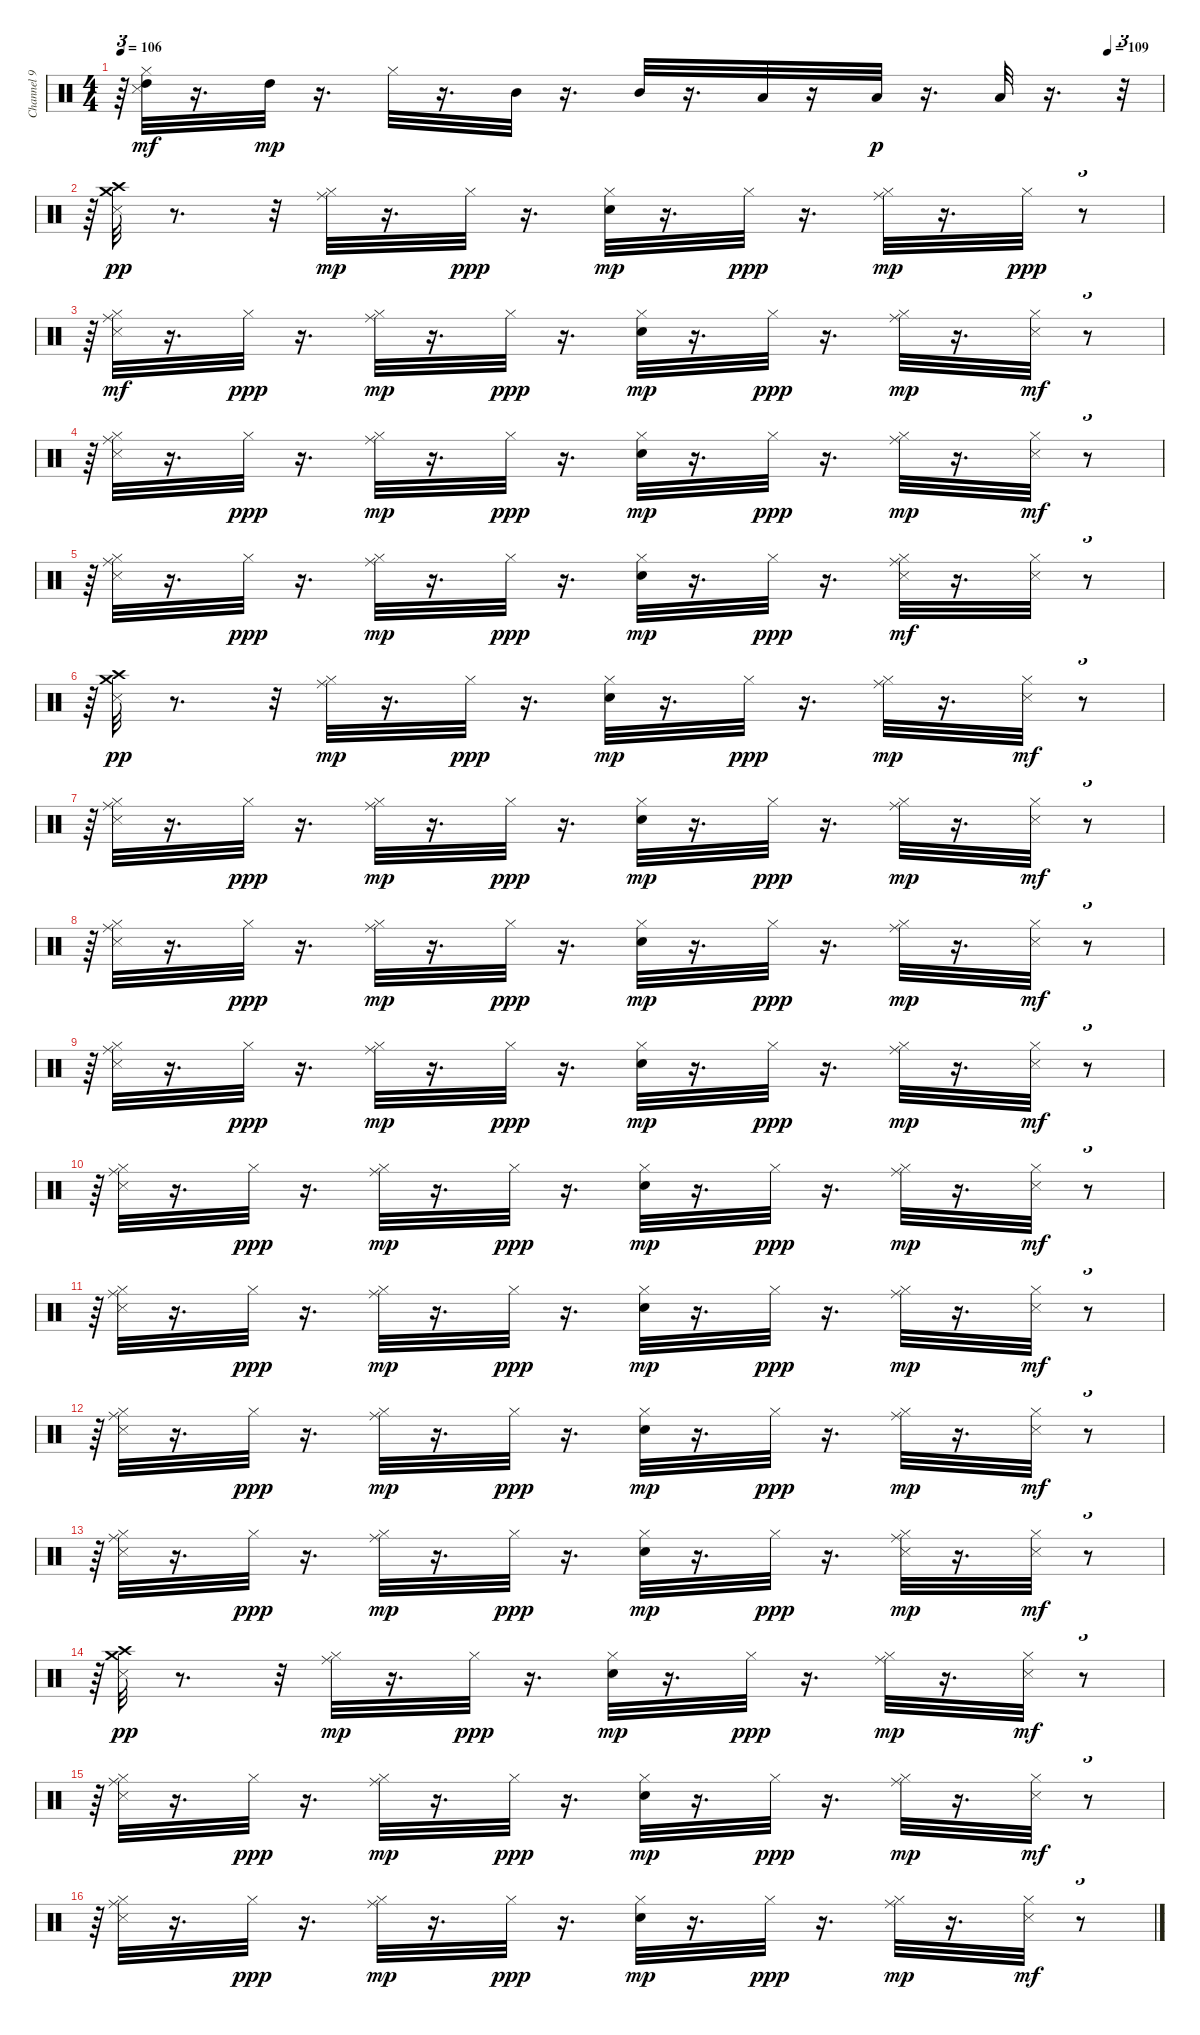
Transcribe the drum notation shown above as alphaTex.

\track ("Channel 9" "Channel 9") {instrument percussion}
\staff {score}
\articulation defaults
\ts (4 4)
\tempo 106
\tempo (109 0.9479166666666666)
\clef neutral
\ks c
r.64{tu (3 2) dy p} ("Hi-Hat (closed)" "High Tom (hit)" "Metronome (hit)").32{dy mf} r.16{d} "High Tom (hit)".32{dy mp} r.16{d} "Hi-Hat (closed)".32 r.16{d} "Mid Tom (hit)".32 r.16{d} "Mid Tom (hit)".32 r.16{d} "Low Tom (hit)".32 r.16 "Low Tom (hit)".32{dy p} r.16{d} "Low Tom (hit)".32 r.16{d} r.32{tu (3 2)} |
r.64{tu (3 2)} ("Crash medium (hit)" "Metronome (hit)" "Crash high (hit)").32{dy pp} r.8{d} r.32 ("Ride (middle)" "Hi-Hat (closed)").32{dy mp} r.16{d} "Hi-Hat (closed)".32{dy ppp} r.16{d} ("Hi-Hat (closed)" "Electric Snare (hit)").32{dy mp} r.16{d} "Hi-Hat (closed)".32{dy ppp} r.16{d} ("Ride (middle)" "Hi-Hat (closed)").32{dy mp} r.16{d} "Hi-Hat (closed)".32{dy ppp} r.8{tu (3 2)} |
r.64{tu (3 2)} ("Ride (middle)" "Hi-Hat (closed)" "Metronome (hit)").32{dy mf} r.16{d} "Hi-Hat (closed)".32{dy ppp} r.16{d} ("Ride (middle)" "Hi-Hat (closed)").32{dy mp} r.16{d} "Hi-Hat (closed)".32{dy ppp} r.16{d} ("Hi-Hat (closed)" "Electric Snare (hit)").32{dy mp} r.16{d} "Hi-Hat (closed)".32{dy ppp} r.16{d} ("Ride (middle)" "Hi-Hat (closed)").32{dy mp} r.16{d} ("Hi-Hat (closed)" "Metronome (hit)").32{dy mf} r.8{tu (3 2)} |
r.64{tu (3 2)} ("Ride (middle)" "Hi-Hat (closed)" "Metronome (hit)").32 r.16{d} "Hi-Hat (closed)".32{dy ppp} r.16{d} ("Ride (middle)" "Hi-Hat (closed)").32{dy mp} r.16{d} "Hi-Hat (closed)".32{dy ppp} r.16{d} ("Hi-Hat (closed)" "Electric Snare (hit)").32{dy mp} r.16{d} "Hi-Hat (closed)".32{dy ppp} r.16{d} ("Ride (middle)" "Hi-Hat (closed)").32{dy mp} r.16{d} ("Hi-Hat (closed)" "Metronome (hit)").32{dy mf} r.8{tu (3 2)} |
r.64{tu (3 2)} ("Ride (middle)" "Hi-Hat (closed)" "Metronome (hit)").32 r.16{d} "Hi-Hat (closed)".32{dy ppp} r.16{d} ("Ride (middle)" "Hi-Hat (closed)").32{dy mp} r.16{d} "Hi-Hat (closed)".32{dy ppp} r.16{d} ("Hi-Hat (closed)" "Electric Snare (hit)").32{dy mp} r.16{d} "Hi-Hat (closed)".32{dy ppp} r.16{d} ("Ride (middle)" "Hi-Hat (closed)" "Metronome (hit)").32{dy mf} r.16{d} ("Hi-Hat (closed)" "Metronome (hit)").32 r.8{tu (3 2)} |
r.64{tu (3 2)} ("Crash medium (hit)" "Metronome (hit)" "Crash high (hit)").32{dy pp} r.8{d} r.32 ("Ride (middle)" "Hi-Hat (closed)").32{dy mp} r.16{d} "Hi-Hat (closed)".32{dy ppp} r.16{d} ("Hi-Hat (closed)" "Electric Snare (hit)").32{dy mp} r.16{d} "Hi-Hat (closed)".32{dy ppp} r.16{d} ("Ride (middle)" "Hi-Hat (closed)").32{dy mp} r.16{d} ("Hi-Hat (closed)" "Metronome (hit)").32{dy mf} r.8{tu (3 2)} |
r.64{tu (3 2)} ("Ride (middle)" "Hi-Hat (closed)" "Metronome (hit)").32 r.16{d} "Hi-Hat (closed)".32{dy ppp} r.16{d} ("Ride (middle)" "Hi-Hat (closed)").32{dy mp} r.16{d} "Hi-Hat (closed)".32{dy ppp} r.16{d} ("Hi-Hat (closed)" "Electric Snare (hit)").32{dy mp} r.16{d} "Hi-Hat (closed)".32{dy ppp} r.16{d} ("Ride (middle)" "Hi-Hat (closed)").32{dy mp} r.16{d} ("Hi-Hat (closed)" "Metronome (hit)").32{dy mf} r.8{tu (3 2)} |
r.64{tu (3 2)} ("Ride (middle)" "Hi-Hat (closed)" "Metronome (hit)").32 r.16{d} "Hi-Hat (closed)".32{dy ppp} r.16{d} ("Ride (middle)" "Hi-Hat (closed)").32{dy mp} r.16{d} "Hi-Hat (closed)".32{dy ppp} r.16{d} ("Hi-Hat (closed)" "Electric Snare (hit)").32{dy mp} r.16{d} "Hi-Hat (closed)".32{dy ppp} r.16{d} ("Ride (middle)" "Hi-Hat (closed)").32{dy mp} r.16{d} ("Hi-Hat (closed)" "Metronome (hit)").32{dy mf} r.8{tu (3 2)} |
r.64{tu (3 2)} ("Ride (middle)" "Hi-Hat (closed)" "Metronome (hit)").32 r.16{d} "Hi-Hat (closed)".32{dy ppp} r.16{d} ("Ride (middle)" "Hi-Hat (closed)").32{dy mp} r.16{d} "Hi-Hat (closed)".32{dy ppp} r.16{d} ("Hi-Hat (closed)" "Electric Snare (hit)").32{dy mp} r.16{d} "Hi-Hat (closed)".32{dy ppp} r.16{d} ("Ride (middle)" "Hi-Hat (closed)").32{dy mp} r.16{d} ("Hi-Hat (closed)" "Metronome (hit)").32{dy mf} r.8{tu (3 2)} |
r.64{tu (3 2)} ("Ride (middle)" "Hi-Hat (closed)" "Metronome (hit)").32 r.16{d} "Hi-Hat (closed)".32{dy ppp} r.16{d} ("Ride (middle)" "Hi-Hat (closed)").32{dy mp} r.16{d} "Hi-Hat (closed)".32{dy ppp} r.16{d} ("Hi-Hat (closed)" "Electric Snare (hit)").32{dy mp} r.16{d} "Hi-Hat (closed)".32{dy ppp} r.16{d} ("Ride (middle)" "Hi-Hat (closed)").32{dy mp} r.16{d} ("Hi-Hat (closed)" "Metronome (hit)").32{dy mf} r.8{tu (3 2)} |
r.64{tu (3 2)} ("Ride (middle)" "Hi-Hat (closed)" "Metronome (hit)").32 r.16{d} "Hi-Hat (closed)".32{dy ppp} r.16{d} ("Ride (middle)" "Hi-Hat (closed)").32{dy mp} r.16{d} "Hi-Hat (closed)".32{dy ppp} r.16{d} ("Hi-Hat (closed)" "Electric Snare (hit)").32{dy mp} r.16{d} "Hi-Hat (closed)".32{dy ppp} r.16{d} ("Ride (middle)" "Hi-Hat (closed)").32{dy mp} r.16{d} ("Hi-Hat (closed)" "Metronome (hit)").32{dy mf} r.8{tu (3 2)} |
r.64{tu (3 2)} ("Ride (middle)" "Hi-Hat (closed)" "Metronome (hit)").32 r.16{d} "Hi-Hat (closed)".32{dy ppp} r.16{d} ("Ride (middle)" "Hi-Hat (closed)").32{dy mp} r.16{d} "Hi-Hat (closed)".32{dy ppp} r.16{d} ("Hi-Hat (closed)" "Electric Snare (hit)").32{dy mp} r.16{d} "Hi-Hat (closed)".32{dy ppp} r.16{d} ("Ride (middle)" "Hi-Hat (closed)").32{dy mp} r.16{d} ("Hi-Hat (closed)" "Metronome (hit)").32{dy mf} r.8{tu (3 2)} |
r.64{tu (3 2)} ("Ride (middle)" "Hi-Hat (closed)" "Metronome (hit)").32 r.16{d} "Hi-Hat (closed)".32{dy ppp} r.16{d} ("Ride (middle)" "Hi-Hat (closed)").32{dy mp} r.16{d} "Hi-Hat (closed)".32{dy ppp} r.16{d} ("Hi-Hat (closed)" "Electric Snare (hit)").32{dy mp} r.16{d} "Hi-Hat (closed)".32{dy ppp} r.16{d} ("Ride (middle)" "Hi-Hat (closed)" "Metronome (hit)").32{dy mp} r.16{d} ("Hi-Hat (closed)" "Metronome (hit)").32{dy mf} r.8{tu (3 2)} |
r.64{tu (3 2)} ("Crash medium (hit)" "Metronome (hit)" "Crash high (hit)").32{dy pp} r.8{d} r.32 ("Ride (middle)" "Hi-Hat (closed)").32{dy mp} r.16{d} "Hi-Hat (closed)".32{dy ppp} r.16{d} ("Hi-Hat (closed)" "Electric Snare (hit)").32{dy mp} r.16{d} "Hi-Hat (closed)".32{dy ppp} r.16{d} ("Ride (middle)" "Hi-Hat (closed)").32{dy mp} r.16{d} ("Hi-Hat (closed)" "Metronome (hit)").32{dy mf} r.8{tu (3 2)} |
r.64{tu (3 2)} ("Ride (middle)" "Hi-Hat (closed)" "Metronome (hit)").32 r.16{d} "Hi-Hat (closed)".32{dy ppp} r.16{d} ("Ride (middle)" "Hi-Hat (closed)").32{dy mp} r.16{d} "Hi-Hat (closed)".32{dy ppp} r.16{d} ("Hi-Hat (closed)" "Electric Snare (hit)").32{dy mp} r.16{d} "Hi-Hat (closed)".32{dy ppp} r.16{d} ("Ride (middle)" "Hi-Hat (closed)").32{dy mp} r.16{d} ("Hi-Hat (closed)" "Metronome (hit)").32{dy mf} r.8{tu (3 2)} |
r.64{tu (3 2)} ("Ride (middle)" "Hi-Hat (closed)" "Metronome (hit)").32 r.16{d} "Hi-Hat (closed)".32{dy ppp} r.16{d} ("Ride (middle)" "Hi-Hat (closed)").32{dy mp} r.16{d} "Hi-Hat (closed)".32{dy ppp} r.16{d} ("Hi-Hat (closed)" "Electric Snare (hit)").32{dy mp} r.16{d} "Hi-Hat (closed)".32{dy ppp} r.16{d} ("Ride (middle)" "Hi-Hat (closed)").32{dy mp} r.16{d} ("Hi-Hat (closed)" "Metronome (hit)").32{dy mf} r.8{tu (3 2)}
